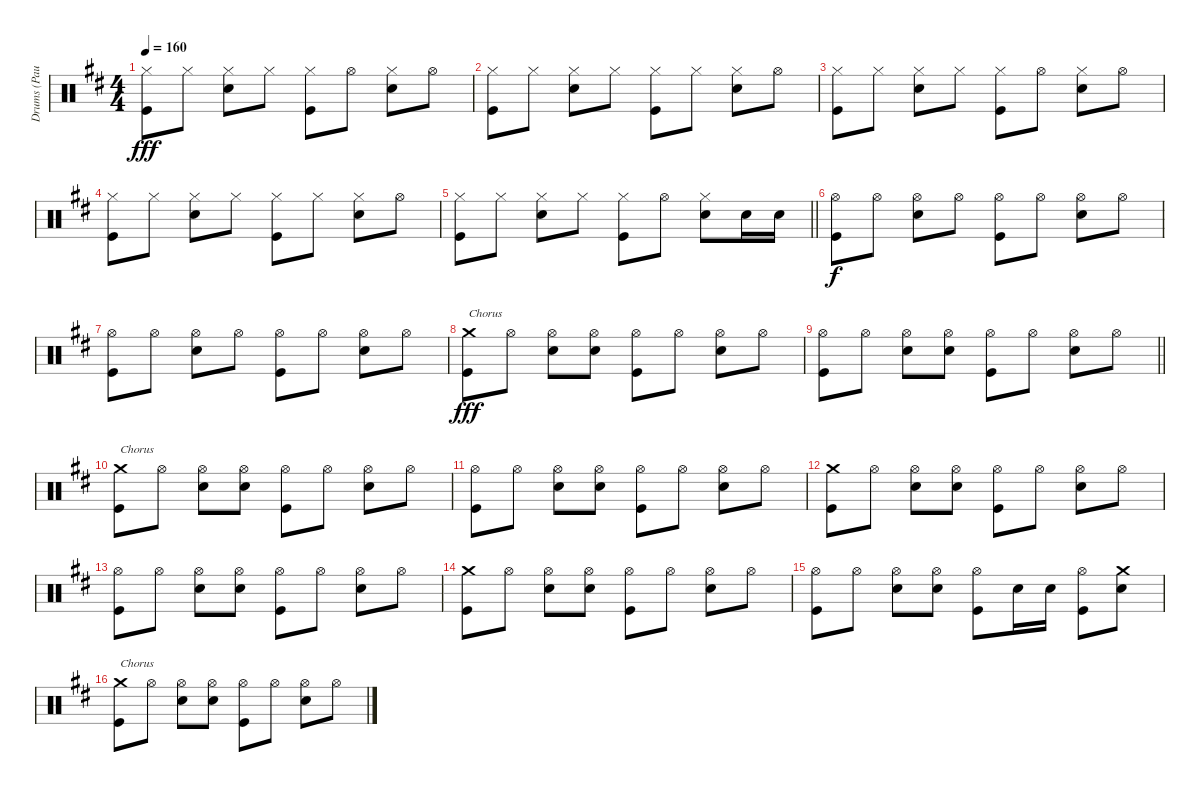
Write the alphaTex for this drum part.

\track ("Drums (Paul)" "Drums (Pau") {instrument percussion}
\staff {score}
\articulation defaults
\ts (4 4)
\tempo 160
\clef neutral
\ks d
("Hi-Hat (closed)" "Kick (hit)").8{dy fff} "Hi-Hat (closed)".8 ("Hi-Hat (closed)" "Electric Snare (hit)").8 "Hi-Hat (closed)".8 ("Hi-Hat (closed)" "Kick (hit)").8 "Hi-Hat (open)".8 ("Hi-Hat (closed)" "Electric Snare (hit)").8 "Hi-Hat (open)".8 |
("Hi-Hat (closed)" "Kick (hit)").8 "Hi-Hat (closed)".8 ("Hi-Hat (closed)" "Electric Snare (hit)").8 "Hi-Hat (closed)".8 ("Hi-Hat (closed)" "Kick (hit)").8 "Hi-Hat (closed)".8 ("Hi-Hat (closed)" "Electric Snare (hit)").8 "Hi-Hat (open)".8 |
("Hi-Hat (closed)" "Kick (hit)").8 "Hi-Hat (closed)".8 ("Hi-Hat (closed)" "Electric Snare (hit)").8 "Hi-Hat (closed)".8 ("Hi-Hat (closed)" "Kick (hit)").8 "Hi-Hat (open)".8 ("Hi-Hat (closed)" "Electric Snare (hit)").8 "Hi-Hat (open)".8 |
("Hi-Hat (closed)" "Kick (hit)").8 "Hi-Hat (closed)".8 ("Hi-Hat (closed)" "Electric Snare (hit)").8 "Hi-Hat (closed)".8 ("Hi-Hat (closed)" "Kick (hit)").8 "Hi-Hat (closed)".8 ("Hi-Hat (closed)" "Electric Snare (hit)").8 "Hi-Hat (open)".8 |
\barLineRight lightlight
("Hi-Hat (closed)" "Kick (hit)").8 "Hi-Hat (closed)".8 ("Hi-Hat (closed)" "Electric Snare (hit)").8 "Hi-Hat (closed)".8 ("Hi-Hat (closed)" "Kick (hit)").8 "Hi-Hat (open)".8 ("Hi-Hat (closed)" "Electric Snare (hit)").8 "Electric Snare (hit)".16 "Electric Snare (hit)".16 |
("Hi-Hat (open)" "Kick (hit)").8{dy f} "Hi-Hat (open)".8 ("Hi-Hat (open)" "Snare (hit) 2").8 "Hi-Hat (open)".8 ("Hi-Hat (open)" "Kick (hit)").8 "Hi-Hat (open)".8 ("Hi-Hat (open)" "Snare (hit) 2").8 "Hi-Hat (open)".8 |
("Hi-Hat (open)" "Kick (hit)").8 "Hi-Hat (open)".8 ("Hi-Hat (open)" "Snare (hit) 2").8 "Hi-Hat (open)".8 ("Hi-Hat (open)" "Kick (hit)").8 "Hi-Hat (open)".8 ("Hi-Hat (open)" "Snare (hit) 2").8 "Hi-Hat (open)".8 |
("Crash medium (hit)" "Kick (hit)").8{txt "Chorus" dy fff} "Hi-Hat (open)".8 ("Hi-Hat (open)" "Electric Snare (hit)").8 ("Hi-Hat (open)" "Electric Snare (hit)").8 ("Hi-Hat (open)" "Kick (hit)").8 "Hi-Hat (open)".8 ("Hi-Hat (open)" "Electric Snare (hit)").8 "Hi-Hat (open)".8 |
\barLineRight lightlight
("Hi-Hat (open)" "Kick (hit)").8 "Hi-Hat (open)".8 ("Hi-Hat (open)" "Electric Snare (hit)").8 ("Hi-Hat (open)" "Electric Snare (hit)").8 ("Hi-Hat (open)" "Kick (hit)").8 "Hi-Hat (open)".8 ("Hi-Hat (open)" "Electric Snare (hit)").8 "Hi-Hat (open)".8 |
("Crash medium (hit)" "Kick (hit)").8{txt "Chorus"} "Hi-Hat (open)".8 ("Hi-Hat (open)" "Electric Snare (hit)").8 ("Hi-Hat (open)" "Electric Snare (hit)").8 ("Hi-Hat (open)" "Kick (hit)").8 "Hi-Hat (open)".8 ("Hi-Hat (open)" "Electric Snare (hit)").8 "Hi-Hat (open)".8 |
("Hi-Hat (open)" "Kick (hit)").8 "Hi-Hat (open)".8 ("Hi-Hat (open)" "Electric Snare (hit)").8 ("Hi-Hat (open)" "Electric Snare (hit)").8 ("Hi-Hat (open)" "Kick (hit)").8 "Hi-Hat (open)".8 ("Hi-Hat (open)" "Electric Snare (hit)").8 "Hi-Hat (open)".8 |
("Crash medium (hit)" "Kick (hit)").8 "Hi-Hat (open)".8 ("Hi-Hat (open)" "Electric Snare (hit)").8 ("Hi-Hat (open)" "Electric Snare (hit)").8 ("Hi-Hat (open)" "Kick (hit)").8 "Hi-Hat (open)".8 ("Hi-Hat (open)" "Electric Snare (hit)").8 "Hi-Hat (open)".8 |
("Hi-Hat (open)" "Kick (hit)").8 "Hi-Hat (open)".8 ("Hi-Hat (open)" "Electric Snare (hit)").8 ("Hi-Hat (open)" "Electric Snare (hit)").8 ("Hi-Hat (open)" "Kick (hit)").8 "Hi-Hat (open)".8 ("Hi-Hat (open)" "Electric Snare (hit)").8 "Hi-Hat (open)".8 |
("Crash medium (hit)" "Kick (hit)").8 "Hi-Hat (open)".8 ("Hi-Hat (open)" "Electric Snare (hit)").8 ("Hi-Hat (open)" "Electric Snare (hit)").8 ("Hi-Hat (open)" "Kick (hit)").8 "Hi-Hat (open)".8 ("Hi-Hat (open)" "Electric Snare (hit)").8 "Hi-Hat (open)".8 |
("Hi-Hat (open)" "Kick (hit)").8 "Hi-Hat (open)".8 ("Hi-Hat (open)" "Electric Snare (hit)").8 ("Hi-Hat (open)" "Electric Snare (hit)").8 ("Hi-Hat (open)" "Kick (hit)").8 "Electric Snare (hit)".16 "Electric Snare (hit)".16 ("Hi-Hat (open)" "Kick (hit)").8 ("Crash medium (hit)" "Electric Snare (hit)").8 |
("Crash medium (hit)" "Kick (hit)").8{txt "Chorus"} "Hi-Hat (open)".8 ("Hi-Hat (open)" "Electric Snare (hit)").8 ("Hi-Hat (open)" "Electric Snare (hit)").8 ("Hi-Hat (open)" "Kick (hit)").8 "Hi-Hat (open)".8 ("Hi-Hat (open)" "Electric Snare (hit)").8 "Hi-Hat (open)".8
